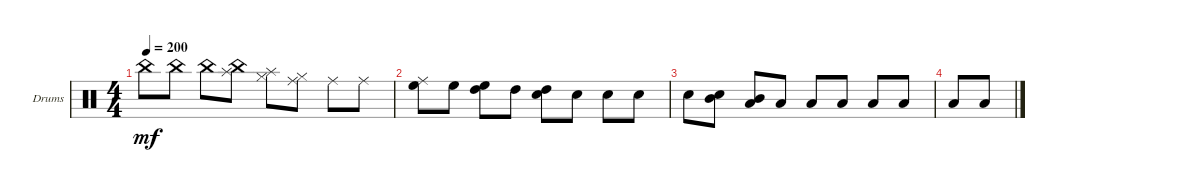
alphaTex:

\defaultSystemsLayout 4
\bracketExtendMode groupsimilarinstruments
\firstSystemTrackNameOrientation horizontal
\otherSystemsTrackNameOrientation horizontal
\track ("Drumkit" "Drums") {instrument percussion}
\staff {score}
\articulation defaults
\ts (4 4)
\tempo 200
\clef neutral
\scale
0.333333
\ks c "China (hit)".8{dy mf} "China (hit)".8 "China (hit)".8
("China (hit)" "Splash (hit)").8 ("Splash (hit)" "Hi-Hat (closed)").8 ("Hi-Hat (closed)" "Ride (middle)").8 "Ride (middle)".8 "Ride (middle)".8 |
\scale
0.333333 ("Ride (middle)" "High Floor Tom (hit)").8 "High Floor Tom (hit)".8 ("High Floor Tom (hit)" "High Tom (hit)").8 "High Tom (hit)".8 ("High Tom (hit)" "Snare (hit) 2").8 "Snare (hit) 2".8 "Snare (hit) 2".8 "Snare (hit) 2".8 |
\scale
0.333333 "Snare (hit) 2".8 ("Snare (hit) 2" "Mid Tom (hit)").8 ("Mid Tom (hit)" "Low Tom (hit)").8 "Low Tom (hit)".8 "Low Tom (hit)".8 "Low Tom (hit)".8 "Low Tom (hit)".8 "Low Tom (hit)".8 |
\scale
0.333333 "Low Tom (hit)".8 "Low Tom (hit)".8 |
\scale
0.333333 |
\scale
0.333333 |
\scale
0.333333 |
\scale
0.333333 |
\scale
0.333333 |
\scale
0.333333 |
\scale
0.333333 |
\scale
0.333333 |
\scale
0.333333 |
\scale
0.333333 |
\scale
0.333333 |
\scale
0.333333
